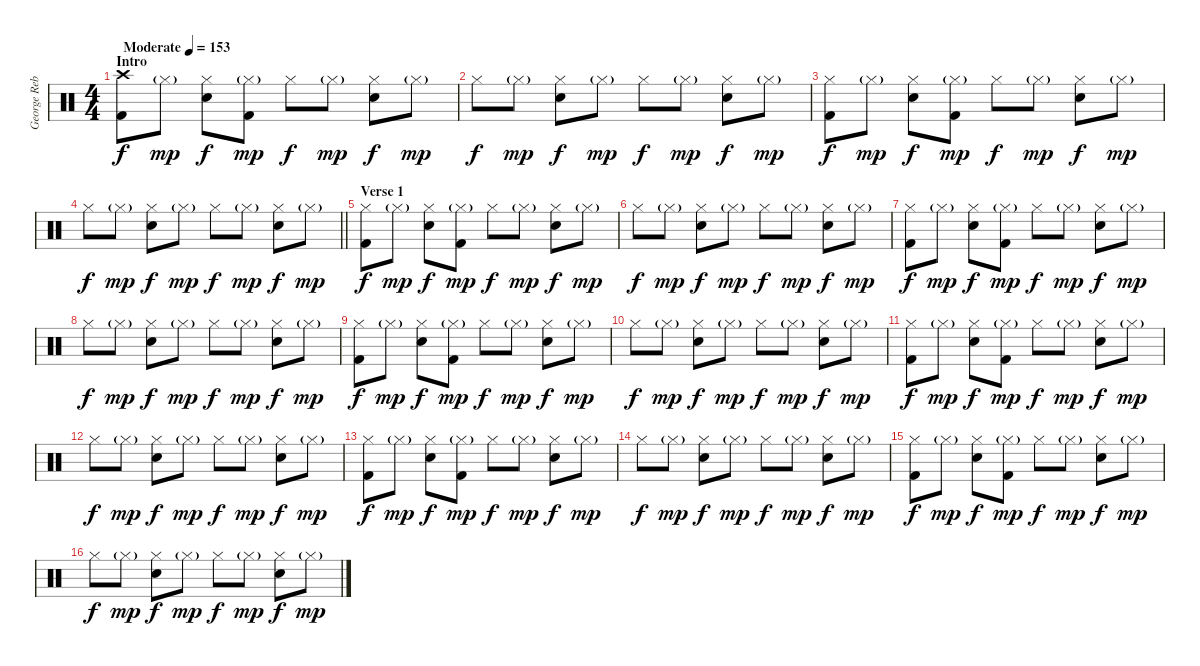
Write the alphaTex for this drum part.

\track ("George Rebelo (Drums)" "George Reb") {instrument percussion}
\staff {score}
\articulation defaults
\ts (4 4)
\section ("" "Intro")
\tempo (153 "Moderate")
\clef neutral
\ks c
("Crash high (hit)" "Kick (hit) 2").8{dy f} "Hi-Hat (closed)"{g}.8{dy mp} ("Hi-Hat (closed)" "Electric Snare (hit)").8{dy f} ("Hi-Hat (closed)"{g} "Kick (hit) 2").8{dy mp} "Hi-Hat (closed)".8{dy f} "Hi-Hat (closed)"{g}.8{dy mp} ("Hi-Hat (closed)" "Electric Snare (hit)").8{dy f} "Hi-Hat (closed)"{g}.8{dy mp} |
"Hi-Hat (closed)".8{dy f} "Hi-Hat (closed)"{g}.8{dy mp} ("Hi-Hat (closed)" "Electric Snare (hit)").8{dy f} "Hi-Hat (closed)"{g}.8{dy mp} "Hi-Hat (closed)".8{dy f} "Hi-Hat (closed)"{g}.8{dy mp} ("Hi-Hat (closed)" "Electric Snare (hit)").8{dy f} "Hi-Hat (closed)"{g}.8{dy mp} |
("Hi-Hat (closed)" "Kick (hit) 2").8{dy f} "Hi-Hat (closed)"{g}.8{dy mp} ("Hi-Hat (closed)" "Electric Snare (hit)").8{dy f} ("Hi-Hat (closed)"{g} "Kick (hit) 2").8{dy mp} "Hi-Hat (closed)".8{dy f} "Hi-Hat (closed)"{g}.8{dy mp} ("Hi-Hat (closed)" "Electric Snare (hit)").8{dy f} "Hi-Hat (closed)"{g}.8{dy mp} |
\barLineRight lightlight "Hi-Hat (closed)".8{dy f} "Hi-Hat (closed)"{g}.8{dy mp}
("Hi-Hat (closed)" "Electric Snare (hit)").8{dy f} "Hi-Hat (closed)"{g}.8{dy mp} "Hi-Hat (closed)".8{dy f} "Hi-Hat (closed)"{g}.8{dy mp} ("Hi-Hat (closed)" "Electric Snare (hit)").8{dy f} "Hi-Hat (closed)"{g}.8{dy mp} |
\section ("" "Verse 1")
("Hi-Hat (closed)" "Kick (hit) 2").8{dy f} "Hi-Hat (closed)"{g}.8{dy mp} ("Hi-Hat (closed)" "Electric Snare (hit)").8{dy f} ("Hi-Hat (closed)"{g} "Kick (hit) 2").8{dy mp} "Hi-Hat (closed)".8{dy f} "Hi-Hat (closed)"{g}.8{dy mp} ("Hi-Hat (closed)" "Electric Snare (hit)").8{dy f} "Hi-Hat (closed)"{g}.8{dy mp} |
"Hi-Hat (closed)".8{dy f} "Hi-Hat (closed)"{g}.8{dy mp} ("Hi-Hat (closed)" "Electric Snare (hit)").8{dy f} "Hi-Hat (closed)"{g}.8{dy mp} "Hi-Hat (closed)".8{dy f} "Hi-Hat (closed)"{g}.8{dy mp} ("Hi-Hat (closed)" "Electric Snare (hit)").8{dy f} "Hi-Hat (closed)"{g}.8{dy mp} |
("Hi-Hat (closed)" "Kick (hit) 2").8{dy f} "Hi-Hat (closed)"{g}.8{dy mp} ("Hi-Hat (closed)" "Electric Snare (hit)").8{dy f} ("Hi-Hat (closed)"{g} "Kick (hit) 2").8{dy mp} "Hi-Hat (closed)".8{dy f} "Hi-Hat (closed)"{g}.8{dy mp} ("Hi-Hat (closed)" "Electric Snare (hit)").8{dy f} "Hi-Hat (closed)"{g}.8{dy mp} |
"Hi-Hat (closed)".8{dy f} "Hi-Hat (closed)"{g}.8{dy mp} ("Hi-Hat (closed)" "Electric Snare (hit)").8{dy f} "Hi-Hat (closed)"{g}.8{dy mp} "Hi-Hat (closed)".8{dy f} "Hi-Hat (closed)"{g}.8{dy mp} ("Hi-Hat (closed)" "Electric Snare (hit)").8{dy f} "Hi-Hat (closed)"{g}.8{dy mp} |
("Hi-Hat (closed)" "Kick (hit) 2").8{dy f} "Hi-Hat (closed)"{g}.8{dy mp} ("Hi-Hat (closed)" "Electric Snare (hit)").8{dy f} ("Hi-Hat (closed)"{g} "Kick (hit) 2").8{dy mp} "Hi-Hat (closed)".8{dy f} "Hi-Hat (closed)"{g}.8{dy mp} ("Hi-Hat (closed)" "Electric Snare (hit)").8{dy f} "Hi-Hat (closed)"{g}.8{dy mp} |
"Hi-Hat (closed)".8{dy f} "Hi-Hat (closed)"{g}.8{dy mp} ("Hi-Hat (closed)" "Electric Snare (hit)").8{dy f} "Hi-Hat (closed)"{g}.8{dy mp} "Hi-Hat (closed)".8{dy f} "Hi-Hat (closed)"{g}.8{dy mp} ("Hi-Hat (closed)" "Electric Snare (hit)").8{dy f} "Hi-Hat (closed)"{g}.8{dy mp} |
("Hi-Hat (closed)" "Kick (hit) 2").8{dy f} "Hi-Hat (closed)"{g}.8{dy mp} ("Hi-Hat (closed)" "Electric Snare (hit)").8{dy f} ("Hi-Hat (closed)"{g} "Kick (hit) 2").8{dy mp} "Hi-Hat (closed)".8{dy f} "Hi-Hat (closed)"{g}.8{dy mp} ("Hi-Hat (closed)" "Electric Snare (hit)").8{dy f} "Hi-Hat (closed)"{g}.8{dy mp} |
"Hi-Hat (closed)".8{dy f} "Hi-Hat (closed)"{g}.8{dy mp} ("Hi-Hat (closed)" "Electric Snare (hit)").8{dy f} "Hi-Hat (closed)"{g}.8{dy mp} "Hi-Hat (closed)".8{dy f} "Hi-Hat (closed)"{g}.8{dy mp} ("Hi-Hat (closed)" "Electric Snare (hit)").8{dy f} "Hi-Hat (closed)"{g}.8{dy mp} |
("Hi-Hat (closed)" "Kick (hit) 2").8{dy f} "Hi-Hat (closed)"{g}.8{dy mp} ("Hi-Hat (closed)" "Electric Snare (hit)").8{dy f} ("Hi-Hat (closed)"{g} "Kick (hit) 2").8{dy mp} "Hi-Hat (closed)".8{dy f} "Hi-Hat (closed)"{g}.8{dy mp} ("Hi-Hat (closed)" "Electric Snare (hit)").8{dy f} "Hi-Hat (closed)"{g}.8{dy mp} |
"Hi-Hat (closed)".8{dy f} "Hi-Hat (closed)"{g}.8{dy mp} ("Hi-Hat (closed)" "Electric Snare (hit)").8{dy f} "Hi-Hat (closed)"{g}.8{dy mp} "Hi-Hat (closed)".8{dy f} "Hi-Hat (closed)"{g}.8{dy mp} ("Hi-Hat (closed)" "Electric Snare (hit)").8{dy f} "Hi-Hat (closed)"{g}.8{dy mp} |
("Hi-Hat (closed)" "Kick (hit) 2").8{dy f} "Hi-Hat (closed)"{g}.8{dy mp} ("Hi-Hat (closed)" "Electric Snare (hit)").8{dy f} ("Hi-Hat (closed)"{g} "Kick (hit) 2").8{dy mp} "Hi-Hat (closed)".8{dy f} "Hi-Hat (closed)"{g}.8{dy mp} ("Hi-Hat (closed)" "Electric Snare (hit)").8{dy f} "Hi-Hat (closed)"{g}.8{dy mp} |
"Hi-Hat (closed)".8{dy f} "Hi-Hat (closed)"{g}.8{dy mp} ("Hi-Hat (closed)" "Electric Snare (hit)").8{dy f} "Hi-Hat (closed)"{g}.8{dy mp} "Hi-Hat (closed)".8{dy f} "Hi-Hat (closed)"{g}.8{dy mp} ("Hi-Hat (closed)" "Electric Snare (hit)").8{dy f} "Hi-Hat (closed)"{g}.8{dy mp}
